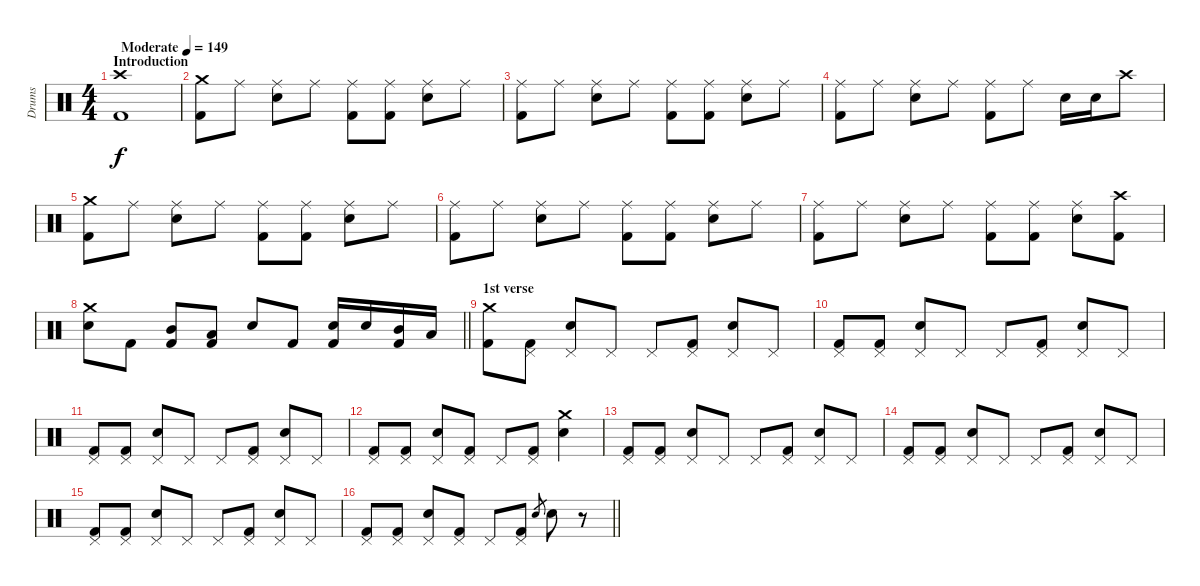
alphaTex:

\track ("Drums" "Drums") {instrument percussion}
\staff {score}
\articulation defaults
\ts (4 4)
\section ("" "Introduction")
\tempo (149 "Moderate")
\clef neutral
\ks c
("Crash high (hit)" "Kick (hit) 2").1{dy f} |
("Crash medium (hit)" "Kick (hit) 2").8 "Ride (middle)".8 ("Ride (middle)" "Electric Snare (hit)").8 "Ride (middle)".8 ("Ride (middle)" "Kick (hit) 2").8 ("Ride (middle)" "Kick (hit) 2").8 ("Ride (middle)" "Electric Snare (hit)").8 "Ride (middle)".8 |
("Ride (middle)" "Kick (hit) 2").8 "Ride (middle)".8 ("Ride (middle)" "Electric Snare (hit)").8 "Ride (middle)".8 ("Ride (middle)" "Kick (hit) 2").8 ("Ride (middle)" "Kick (hit) 2").8 ("Ride (middle)" "Electric Snare (hit)").8 "Ride (middle)".8 |
("Ride (middle)" "Kick (hit) 2").8 "Ride (middle)".8 ("Ride (middle)" "Electric Snare (hit)").8 "Ride (middle)".8 ("Ride (middle)" "Kick (hit) 2").8 "Ride (middle)".8 "Electric Snare (hit)".16 "Electric Snare (hit)".16 "Crash high (hit)".8 |
("Crash medium (hit)" "Kick (hit) 2").8 "Ride (middle)".8 ("Ride (middle)" "Electric Snare (hit)").8 "Ride (middle)".8 ("Ride (middle)" "Kick (hit) 2").8 ("Ride (middle)" "Kick (hit) 2").8 ("Ride (middle)" "Electric Snare (hit)").8 "Ride (middle)".8 |
("Ride (middle)" "Kick (hit) 2").8 "Ride (middle)".8 ("Ride (middle)" "Electric Snare (hit)").8 "Ride (middle)".8 ("Ride (middle)" "Kick (hit) 2").8 ("Ride (middle)" "Kick (hit) 2").8 ("Ride (middle)" "Electric Snare (hit)").8 "Ride (middle)".8 |
("Ride (middle)" "Kick (hit) 2").8 "Ride (middle)".8 ("Ride (middle)" "Electric Snare (hit)").8 "Ride (middle)".8 ("Ride (middle)" "Kick (hit) 2").8 ("Ride (middle)" "Kick (hit) 2").8 ("Ride (middle)" "Electric Snare (hit)").8 ("Crash high (hit)" "Kick (hit) 2").8 |
\barLineRight lightlight
("Crash medium (hit)" "Electric Snare (hit)").8 "Kick (hit) 2".8 ("Mid Tom (hit)" "Kick (hit) 2").8 ("Low Tom (hit)" "Kick (hit) 2").8 "Electric Snare (hit)".8 "Kick (hit) 2".8 ("Electric Snare (hit)" "Kick (hit) 2").16 "Electric Snare (hit)".16 ("Mid Tom (hit)" "Kick (hit) 2").16 "Low Tom (hit)".16 |
\section ("" "1st verse")
("Crash medium (hit)" "Kick (hit) 2").8 ("Pedal Hi-Hat (hit)" "Kick (hit) 2").8 ("Pedal Hi-Hat (hit)" "Electric Snare (hit)").8 "Pedal Hi-Hat (hit)".8 "Pedal Hi-Hat (hit)".8 ("Pedal Hi-Hat (hit)" "Kick (hit) 2").8 ("Pedal Hi-Hat (hit)" "Electric Snare (hit)").8 "Pedal Hi-Hat (hit)".8 |
("Pedal Hi-Hat (hit)" "Kick (hit) 2").8 ("Pedal Hi-Hat (hit)" "Kick (hit) 2").8 ("Pedal Hi-Hat (hit)" "Electric Snare (hit)").8 "Pedal Hi-Hat (hit)".8 "Pedal Hi-Hat (hit)".8 ("Pedal Hi-Hat (hit)" "Kick (hit) 2").8 ("Pedal Hi-Hat (hit)" "Electric Snare (hit)").8 "Pedal Hi-Hat (hit)".8 |
("Pedal Hi-Hat (hit)" "Kick (hit) 2").8 ("Pedal Hi-Hat (hit)" "Kick (hit) 2").8 ("Pedal Hi-Hat (hit)" "Electric Snare (hit)").8 "Pedal Hi-Hat (hit)".8 "Pedal Hi-Hat (hit)".8 ("Pedal Hi-Hat (hit)" "Kick (hit) 2").8 ("Pedal Hi-Hat (hit)" "Electric Snare (hit)").8 "Pedal Hi-Hat (hit)".8 |
("Pedal Hi-Hat (hit)" "Kick (hit) 2").8 ("Pedal Hi-Hat (hit)" "Kick (hit) 2").8 ("Pedal Hi-Hat (hit)" "Electric Snare (hit)").8 ("Pedal Hi-Hat (hit)" "Kick (hit) 2").8 "Pedal Hi-Hat (hit)".8 ("Pedal Hi-Hat (hit)" "Kick (hit) 2").8 ("Crash medium (hit)" "Electric Snare (hit)").4 |
("Pedal Hi-Hat (hit)" "Kick (hit) 2").8 ("Pedal Hi-Hat (hit)" "Kick (hit) 2").8 ("Pedal Hi-Hat (hit)" "Electric Snare (hit)").8 "Pedal Hi-Hat (hit)".8 "Pedal Hi-Hat (hit)".8 ("Pedal Hi-Hat (hit)" "Kick (hit) 2").8 ("Pedal Hi-Hat (hit)" "Electric Snare (hit)").8 "Pedal Hi-Hat (hit)".8 |
("Pedal Hi-Hat (hit)" "Kick (hit) 2").8 ("Pedal Hi-Hat (hit)" "Kick (hit) 2").8 ("Pedal Hi-Hat (hit)" "Electric Snare (hit)").8 "Pedal Hi-Hat (hit)".8 "Pedal Hi-Hat (hit)".8 ("Pedal Hi-Hat (hit)" "Kick (hit) 2").8 ("Pedal Hi-Hat (hit)" "Electric Snare (hit)").8 "Pedal Hi-Hat (hit)".8 |
("Pedal Hi-Hat (hit)" "Kick (hit) 2").8 ("Pedal Hi-Hat (hit)" "Kick (hit) 2").8 ("Pedal Hi-Hat (hit)" "Electric Snare (hit)").8 "Pedal Hi-Hat (hit)".8 "Pedal Hi-Hat (hit)".8 ("Pedal Hi-Hat (hit)" "Kick (hit) 2").8 ("Pedal Hi-Hat (hit)" "Electric Snare (hit)").8 "Pedal Hi-Hat (hit)".8 |
\barLineRight lightlight
("Pedal Hi-Hat (hit)" "Kick (hit) 2").8 ("Pedal Hi-Hat (hit)" "Kick (hit) 2").8 ("Pedal Hi-Hat (hit)" "Electric Snare (hit)").8 ("Pedal Hi-Hat (hit)" "Kick (hit) 2").8 "Pedal Hi-Hat (hit)".8 ("Pedal Hi-Hat (hit)" "Kick (hit) 2").8 "Electric Snare (hit)".8{gr} "Electric Snare (hit)".8 r.8
